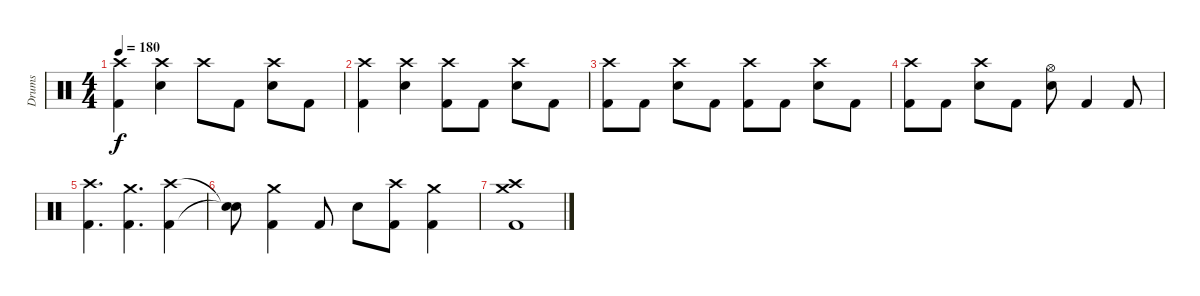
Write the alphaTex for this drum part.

\track ("Drums" "Drums") {instrument percussion}
\staff {score}
\articulation defaults
\ts (4 4)
\tempo 180
\clef neutral
\ks c
("Crash high (hit)" "Kick (hit) 2").4{dy f} ("Crash high (hit)" "Electric Snare (hit)").4 "Crash high (hit)".8 "Kick (hit) 2".8 ("Crash high (hit)" "Electric Snare (hit)").8 "Kick (hit) 2".8 |
("Crash high (hit)" "Kick (hit) 2").4 ("Crash high (hit)" "Electric Snare (hit)").4 ("Crash high (hit)" "Kick (hit) 2").8 "Kick (hit) 2".8 ("Crash high (hit)" "Electric Snare (hit)").8 "Kick (hit) 2".8 |
("Crash high (hit)" "Kick (hit) 2").8 "Kick (hit) 2".8 ("Crash high (hit)" "Electric Snare (hit)").8 "Kick (hit) 2".8 ("Crash high (hit)" "Kick (hit) 2").8 "Kick (hit) 2".8 ("Crash high (hit)" "Electric Snare (hit)").8 "Kick (hit) 2".8 |
("Crash high (hit)" "Kick (hit) 2").8 "Kick (hit) 2".8 ("Crash high (hit)" "Electric Snare (hit)").8 "Kick (hit) 2".8 ("Hi-Hat (open)" "Electric Snare (hit)").8 "Kick (hit) 2".4 "Kick (hit) 2".8 |
("Crash high (hit)" "Kick (hit) 2").4{d} ("Crash medium (hit)" "Kick (hit) 2").4{d} ("Crash high (hit)" "Kick (hit) 2").4 |
("Snare (hit)"{t} "Snare (hit)"{t}).8 ("Crash medium (hit)" "Kick (hit) 2").4 "Kick (hit) 2".8 "Electric Snare (hit)".8 ("Crash high (hit)" "Kick (hit) 2").8 ("Crash medium (hit)" "Kick (hit) 2").4 |
("Crash high (hit)" "Crash medium (hit)" "Kick (hit) 2").1
